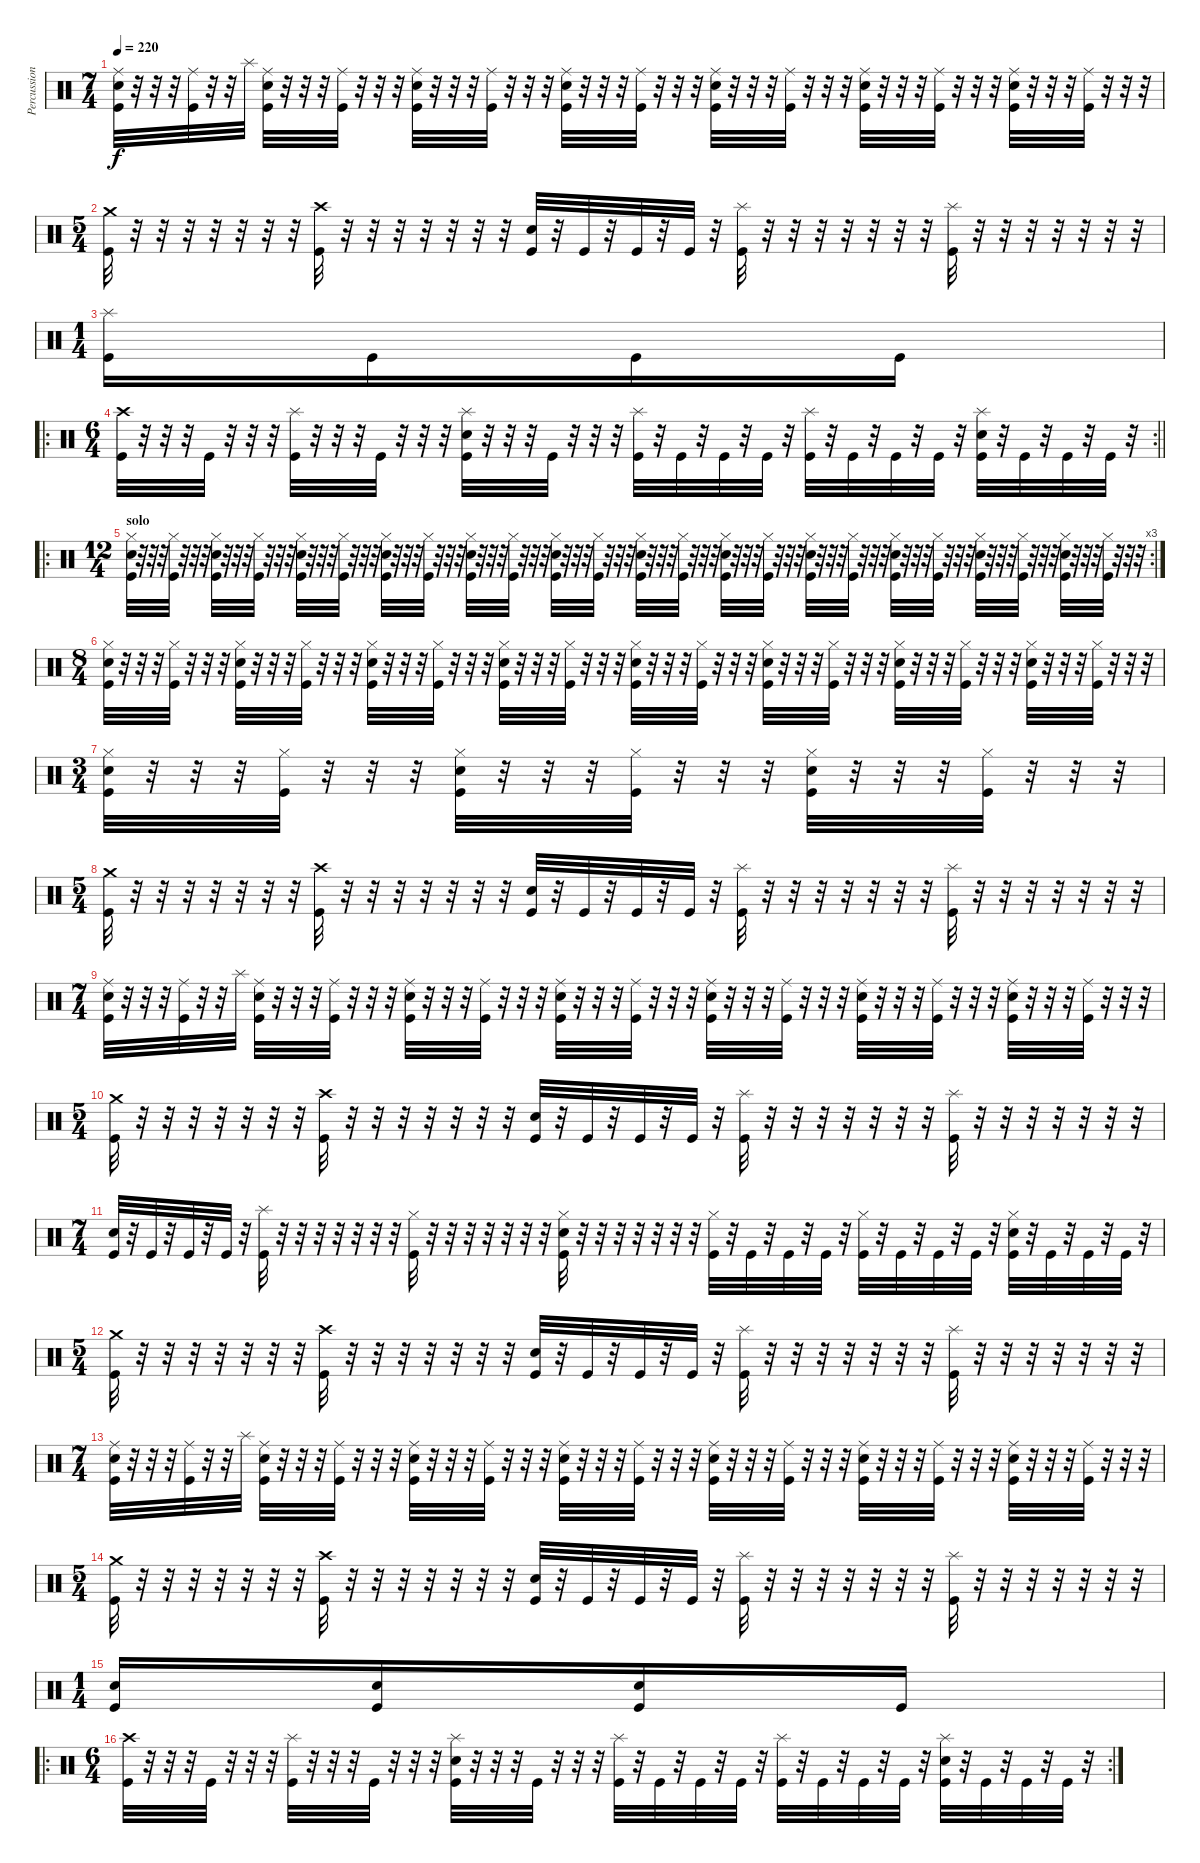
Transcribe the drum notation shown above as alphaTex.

\track ("Percussion" "Percussion") {instrument percussion}
\staff {score}
\articulation defaults
\ts (7 4)
\tempo 220
\clef neutral
\ks c
("Kick (hit)" "Electric Snare (hit)" "Ride (middle)").32{dy f} r.32 r.32 r.32 ("Kick (hit)" "Ride (middle)").32 r.32 r.32 "Splash (hit)".32 ("Kick (hit)" "Electric Snare (hit)" "Ride (middle)").32 r.32 r.32 r.32 ("Kick (hit)" "Ride (middle)").32 r.32 r.32 r.32 ("Kick (hit)" "Electric Snare (hit)" "Ride (middle)").32 r.32 r.32 r.32 ("Kick (hit)" "Ride (middle)").32 r.32 r.32 r.32 ("Kick (hit)" "Electric Snare (hit)" "Ride (middle)").32 r.32 r.32 r.32 ("Kick (hit)" "Ride (middle)").32 r.32 r.32 r.32 ("Kick (hit)" "Electric Snare (hit)" "Ride (middle)").32 r.32 r.32 r.32 ("Kick (hit)" "Ride (middle)").32 r.32 r.32 r.32 ("Kick (hit)" "Electric Snare (hit)" "Ride (middle)").32 r.32 r.32 r.32 ("Kick (hit)" "Ride (middle)").32 r.32 r.32 r.32 ("Kick (hit)" "Electric Snare (hit)" "Ride (middle)").32 r.32 r.32 r.32 ("Kick (hit)" "Ride (middle)").32 r.32 r.32 r.32 |
\ts (5 4)
("Kick (hit)" "Crash medium (hit)").32 r.32 r.32 r.32 r.32 r.32 r.32 r.32 ("Kick (hit)" "Crash high (hit)").32 r.32 r.32 r.32 r.32 r.32 r.32 r.32 ("Kick (hit)" "Electric Snare (hit)").32 r.32 "Kick (hit)".32 r.32 "Kick (hit)".32 r.32 "Kick (hit)".32 r.32 ("Kick (hit)" "Splash (hit)").32 r.32 r.32 r.32 r.32 r.32 r.32 r.32 ("Kick (hit)" "Splash (hit)").32 r.32 r.32 r.32 r.32 r.32 r.32 r.32 |
\ts (1 4)
("Kick (hit)" "Splash (hit)").16 "Kick (hit)".16 "Kick (hit)".16 "Kick (hit)".16 |
\ro
\rc 2
\ts (6 4)
\barLineRight lightlight
("Kick (hit)" "Crash high (hit)").32 r.32 r.32 r.32 "Kick (hit)".32 r.32 r.32 r.32 ("Kick (hit)" "Splash (hit)").32 r.32 r.32 r.32 "Kick (hit)".32 r.32 r.32 r.32 ("Kick (hit)" "Electric Snare (hit)" "Splash (hit)").32 r.32 r.32 r.32 "Kick (hit)".32 r.32 r.32 r.32 ("Kick (hit)" "Splash (hit)").32 r.32 "Kick (hit)".32 r.32 "Kick (hit)".32 r.32 "Kick (hit)".32 r.32 ("Kick (hit)" "Splash (hit)").32 r.32 "Kick (hit)".32 r.32 "Kick (hit)".32 r.32 "Kick (hit)".32 r.32 ("Kick (hit)" "Electric Snare (hit)" "Splash (hit)").32 r.32 "Kick (hit)".32 r.32 "Kick (hit)".32 r.32 "Kick (hit)".32 r.32 |
\ro
\rc 3
\ts (12 4)
\section ("" "solo")
("Kick (hit)" "Electric Snare (hit)" "Hi-Hat (closed)").32 r.32 r.32 r.32 ("Kick (hit)" "Hi-Hat (closed)").32 r.32 r.32 r.32 ("Kick (hit)" "Electric Snare (hit)" "Hi-Hat (closed)").32 r.32 r.32 r.32 ("Kick (hit)" "Hi-Hat (closed)").32 r.32 r.32 r.32 ("Kick (hit)" "Electric Snare (hit)" "Hi-Hat (closed)").32 r.32 r.32 r.32 ("Kick (hit)" "Hi-Hat (closed)").32 r.32 r.32 r.32 ("Kick (hit)" "Electric Snare (hit)" "Hi-Hat (closed)").32 r.32 r.32 r.32 ("Kick (hit)" "Hi-Hat (closed)").32 r.32 r.32 r.32 ("Kick (hit)" "Electric Snare (hit)" "Hi-Hat (closed)").32 r.32 r.32 r.32 ("Kick (hit)" "Hi-Hat (closed)").32 r.32 r.32 r.32 ("Kick (hit)" "Electric Snare (hit)" "Hi-Hat (closed)").32 r.32 r.32 r.32 ("Kick (hit)" "Hi-Hat (closed)").32 r.32 r.32 r.32 ("Kick (hit)" "Electric Snare (hit)" "Hi-Hat (closed)").32 r.32 r.32 r.32 ("Kick (hit)" "Hi-Hat (closed)").32 r.32 r.32 r.32 ("Kick (hit)" "Electric Snare (hit)" "Hi-Hat (closed)").32 r.32 r.32 r.32 ("Kick (hit)" "Hi-Hat (closed)").32 r.32 r.32 r.32 ("Kick (hit)" "Electric Snare (hit)" "Hi-Hat (closed)").32 r.32 r.32 r.32 ("Kick (hit)" "Hi-Hat (closed)").32 r.32 r.32 r.32 ("Kick (hit)" "Electric Snare (hit)" "Hi-Hat (closed)").32 r.32 r.32 r.32 ("Kick (hit)" "Hi-Hat (closed)").32 r.32 r.32 r.32 ("Kick (hit)" "Electric Snare (hit)" "Hi-Hat (closed)").32 r.32 r.32 r.32 ("Kick (hit)" "Hi-Hat (closed)").32 r.32 r.32 r.32 ("Kick (hit)" "Electric Snare (hit)" "Hi-Hat (closed)").32 r.32 r.32 r.32 ("Kick (hit)" "Hi-Hat (closed)").32 r.32 r.32 r.32 |
\ts (8 4)
("Kick (hit)" "Electric Snare (hit)" "Hi-Hat (closed)").32 r.32 r.32 r.32 ("Kick (hit)" "Hi-Hat (closed)").32 r.32 r.32 r.32 ("Kick (hit)" "Electric Snare (hit)" "Hi-Hat (closed)").32 r.32 r.32 r.32 ("Kick (hit)" "Hi-Hat (closed)").32 r.32 r.32 r.32 ("Kick (hit)" "Electric Snare (hit)" "Hi-Hat (closed)").32 r.32 r.32 r.32 ("Kick (hit)" "Hi-Hat (closed)").32 r.32 r.32 r.32 ("Kick (hit)" "Electric Snare (hit)" "Hi-Hat (closed)").32 r.32 r.32 r.32 ("Kick (hit)" "Hi-Hat (closed)").32 r.32 r.32 r.32 ("Kick (hit)" "Electric Snare (hit)" "Hi-Hat (closed)").32 r.32 r.32 r.32 ("Kick (hit)" "Hi-Hat (closed)").32 r.32 r.32 r.32 ("Kick (hit)" "Electric Snare (hit)" "Hi-Hat (closed)").32 r.32 r.32 r.32 ("Kick (hit)" "Hi-Hat (closed)").32 r.32 r.32 r.32 ("Kick (hit)" "Electric Snare (hit)" "Hi-Hat (closed)").32 r.32 r.32 r.32 ("Kick (hit)" "Hi-Hat (closed)").32 r.32 r.32 r.32 ("Kick (hit)" "Electric Snare (hit)" "Hi-Hat (closed)").32 r.32 r.32 r.32 ("Kick (hit)" "Hi-Hat (closed)").32 r.32 r.32 r.32 |
\ts (3 4)
("Kick (hit)" "Electric Snare (hit)" "Hi-Hat (closed)").32 r.32 r.32 r.32 ("Kick (hit)" "Hi-Hat (closed)").32 r.32 r.32 r.32 ("Kick (hit)" "Electric Snare (hit)" "Hi-Hat (closed)").32 r.32 r.32 r.32 ("Kick (hit)" "Hi-Hat (closed)").32 r.32 r.32 r.32 ("Kick (hit)" "Electric Snare (hit)" "Hi-Hat (closed)").32 r.32 r.32 r.32 ("Kick (hit)" "Hi-Hat (closed)").32 r.32 r.32 r.32 |
\ts (5 4)
("Kick (hit)" "Crash medium (hit)").32 r.32 r.32 r.32 r.32 r.32 r.32 r.32 ("Kick (hit)" "Crash high (hit)").32 r.32 r.32 r.32 r.32 r.32 r.32 r.32 ("Kick (hit)" "Electric Snare (hit)").32 r.32 "Kick (hit)".32 r.32 "Kick (hit)".32 r.32 "Kick (hit)".32 r.32 ("Kick (hit)" "Splash (hit)").32 r.32 r.32 r.32 r.32 r.32 r.32 r.32 ("Kick (hit)" "Splash (hit)").32 r.32 r.32 r.32 r.32 r.32 r.32 r.32 |
\ts (7 4)
("Kick (hit)" "Electric Snare (hit)" "Ride (middle)").32 r.32 r.32 r.32 ("Kick (hit)" "Ride (middle)").32 r.32 r.32 "Splash (hit)".32 ("Kick (hit)" "Electric Snare (hit)" "Ride (middle)").32 r.32 r.32 r.32 ("Kick (hit)" "Ride (middle)").32 r.32 r.32 r.32 ("Kick (hit)" "Electric Snare (hit)" "Ride (middle)").32 r.32 r.32 r.32 ("Kick (hit)" "Ride (middle)").32 r.32 r.32 r.32 ("Kick (hit)" "Electric Snare (hit)" "Ride (middle)").32 r.32 r.32 r.32 ("Kick (hit)" "Ride (middle)").32 r.32 r.32 r.32 ("Kick (hit)" "Electric Snare (hit)" "Ride (middle)").32 r.32 r.32 r.32 ("Kick (hit)" "Ride (middle)").32 r.32 r.32 r.32 ("Kick (hit)" "Electric Snare (hit)" "Ride (middle)").32 r.32 r.32 r.32 ("Kick (hit)" "Ride (middle)").32 r.32 r.32 r.32 ("Kick (hit)" "Electric Snare (hit)" "Ride (middle)").32 r.32 r.32 r.32 ("Kick (hit)" "Ride (middle)").32 r.32 r.32 r.32 |
\ts (5 4)
("Kick (hit)" "Crash medium (hit)").32 r.32 r.32 r.32 r.32 r.32 r.32 r.32 ("Kick (hit)" "Crash high (hit)").32 r.32 r.32 r.32 r.32 r.32 r.32 r.32 ("Kick (hit)" "Electric Snare (hit)").32 r.32 "Kick (hit)".32 r.32 "Kick (hit)".32 r.32 "Kick (hit)".32 r.32 ("Kick (hit)" "Splash (hit)").32 r.32 r.32 r.32 r.32 r.32 r.32 r.32 ("Kick (hit)" "Splash (hit)").32 r.32 r.32 r.32 r.32 r.32 r.32 r.32 |
\ts (7 4)
("Electric Snare (hit)" "Kick (hit)").32 r.32 "Kick (hit)".32 r.32 "Kick (hit)".32 r.32 "Kick (hit)".32 r.32 ("Kick (hit)" "Splash (hit)").32 r.32 r.32 r.32 r.32 r.32 r.32 r.32 ("Kick (hit)" "Hi-Hat (closed)").32 r.32 r.32 r.32 r.32 r.32 r.32 r.32 ("Kick (hit)" "Electric Snare (hit)" "Hi-Hat (closed)").32 r.32 r.32 r.32 r.32 r.32 r.32 r.32 ("Kick (hit)" "Hi-Hat (closed)").32 r.32 "Kick (hit)".32 r.32 "Kick (hit)".32 r.32 "Kick (hit)".32 r.32 ("Kick (hit)" "Hi-Hat (closed)").32 r.32 "Kick (hit)".32 r.32 "Kick (hit)".32 r.32 "Kick (hit)".32 r.32 ("Kick (hit)" "Electric Snare (hit)" "Hi-Hat (closed)").32 r.32 "Kick (hit)".32 r.32 "Kick (hit)".32 r.32 "Kick (hit)".32 r.32 |
\ts (5 4)
("Kick (hit)" "Crash medium (hit)").32 r.32 r.32 r.32 r.32 r.32 r.32 r.32 ("Kick (hit)" "Crash high (hit)").32 r.32 r.32 r.32 r.32 r.32 r.32 r.32 ("Kick (hit)" "Electric Snare (hit)").32 r.32 "Kick (hit)".32 r.32 "Kick (hit)".32 r.32 "Kick (hit)".32 r.32 ("Kick (hit)" "Splash (hit)").32 r.32 r.32 r.32 r.32 r.32 r.32 r.32 ("Kick (hit)" "Splash (hit)").32 r.32 r.32 r.32 r.32 r.32 r.32 r.32 |
\ts (7 4)
("Kick (hit)" "Electric Snare (hit)" "Ride (middle)").32 r.32 r.32 r.32 ("Kick (hit)" "Ride (middle)").32 r.32 r.32 "Splash (hit)".32 ("Kick (hit)" "Electric Snare (hit)" "Ride (middle)").32 r.32 r.32 r.32 ("Kick (hit)" "Ride (middle)").32 r.32 r.32 r.32 ("Kick (hit)" "Electric Snare (hit)" "Ride (middle)").32 r.32 r.32 r.32 ("Kick (hit)" "Ride (middle)").32 r.32 r.32 r.32 ("Kick (hit)" "Electric Snare (hit)" "Ride (middle)").32 r.32 r.32 r.32 ("Kick (hit)" "Ride (middle)").32 r.32 r.32 r.32 ("Kick (hit)" "Electric Snare (hit)" "Ride (middle)").32 r.32 r.32 r.32 ("Kick (hit)" "Ride (middle)").32 r.32 r.32 r.32 ("Kick (hit)" "Electric Snare (hit)" "Ride (middle)").32 r.32 r.32 r.32 ("Kick (hit)" "Ride (middle)").32 r.32 r.32 r.32 ("Kick (hit)" "Electric Snare (hit)" "Ride (middle)").32 r.32 r.32 r.32 ("Kick (hit)" "Ride (middle)").32 r.32 r.32 r.32 |
\ts (5 4)
("Kick (hit)" "Crash medium (hit)").32 r.32 r.32 r.32 r.32 r.32 r.32 r.32 ("Kick (hit)" "Crash high (hit)").32 r.32 r.32 r.32 r.32 r.32 r.32 r.32 ("Kick (hit)" "Electric Snare (hit)").32 r.32 "Kick (hit)".32 r.32 "Kick (hit)".32 r.32 "Kick (hit)".32 r.32 ("Kick (hit)" "Splash (hit)").32 r.32 r.32 r.32 r.32 r.32 r.32 r.32 ("Kick (hit)" "Splash (hit)").32 r.32 r.32 r.32 r.32 r.32 r.32 r.32 |
\ts (1 4)
("Kick (hit)" "Electric Snare (hit)").16 ("Kick (hit)" "Electric Snare (hit)").16 ("Kick (hit)" "Electric Snare (hit)").16 "Kick (hit)".16 |
\ro
\rc 2
\ts (6 4)
("Kick (hit)" "Crash high (hit)").32 r.32 r.32 r.32 "Kick (hit)".32 r.32 r.32 r.32 ("Kick (hit)" "Splash (hit)").32 r.32 r.32 r.32 "Kick (hit)".32 r.32 r.32 r.32 ("Kick (hit)" "Electric Snare (hit)" "Splash (hit)").32 r.32 r.32 r.32 "Kick (hit)".32 r.32 r.32 r.32 ("Kick (hit)" "Splash (hit)").32 r.32 "Kick (hit)".32 r.32 "Kick (hit)".32 r.32 "Kick (hit)".32 r.32 ("Kick (hit)" "Splash (hit)").32 r.32 "Kick (hit)".32 r.32 "Kick (hit)".32 r.32 "Kick (hit)".32 r.32 ("Kick (hit)" "Electric Snare (hit)" "Splash (hit)").32 r.32 "Kick (hit)".32 r.32 "Kick (hit)".32 r.32 "Kick (hit)".32 r.32
